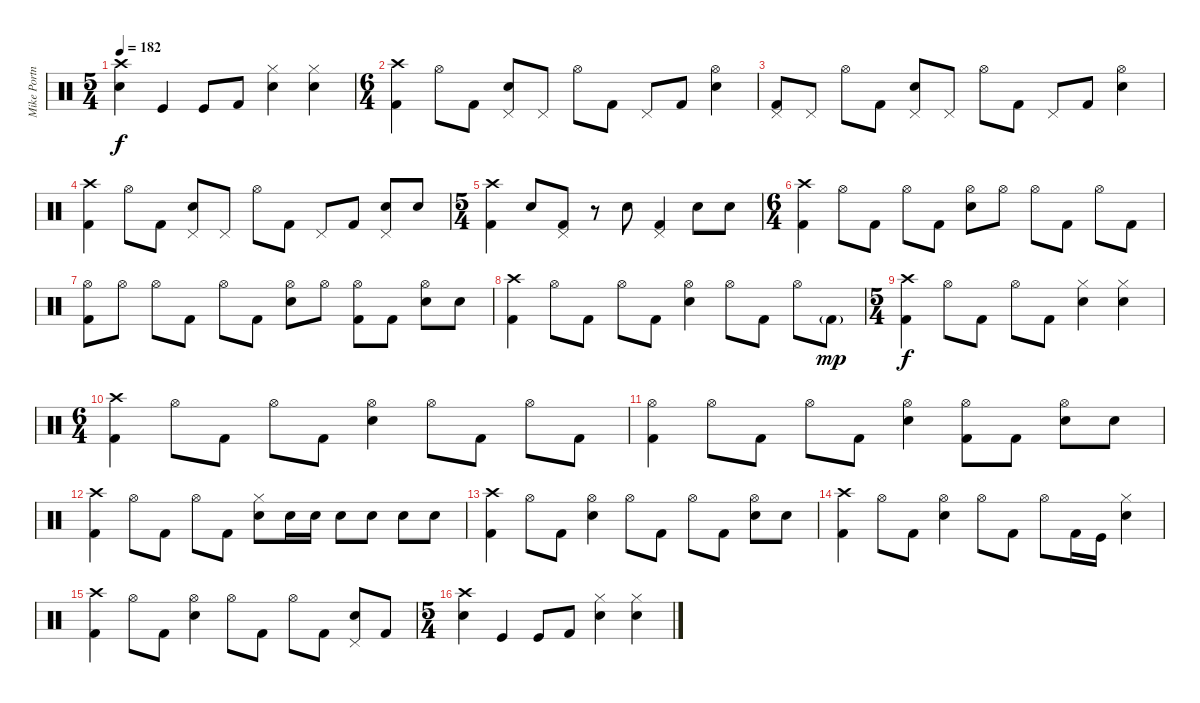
\track ("Mike Portnoy" "Mike Portn") {instrument percussion}
\staff {score}
\articulation defaults
\ts (5 4)
\tempo 182
\clef neutral
\ks c
("Crash high (hit)" "Electric Snare (hit)").4{dy f} "Kick (hit)".4 "Kick (hit)".8 "Kick (hit) 2".8 ("Hi-Hat (closed)" "Electric Snare (hit)").4 ("Hi-Hat (closed)" "Electric Snare (hit)").4 |
\ts (6 4)
("Crash high (hit)" "Kick (hit) 2").4 "Hi-Hat (open)".8 "Kick (hit) 2".8 ("Pedal Hi-Hat (hit)" "Electric Snare (hit)").8 "Pedal Hi-Hat (hit)".8 "Hi-Hat (open)".8 "Kick (hit) 2".8 "Pedal Hi-Hat (hit)".8 "Kick (hit) 2".8 ("Hi-Hat (open)" "Electric Snare (hit)").4 |
("Pedal Hi-Hat (hit)" "Kick (hit) 2").8 "Pedal Hi-Hat (hit)".8 "Hi-Hat (open)".8 "Kick (hit) 2".8 ("Pedal Hi-Hat (hit)" "Electric Snare (hit)").8 "Pedal Hi-Hat (hit)".8 "Hi-Hat (open)".8 "Kick (hit) 2".8 "Pedal Hi-Hat (hit)".8 "Kick (hit) 2".8 ("Hi-Hat (open)" "Electric Snare (hit)").4 |
("Crash high (hit)" "Kick (hit) 2").4 "Hi-Hat (open)".8 "Kick (hit) 2".8 ("Pedal Hi-Hat (hit)" "Electric Snare (hit)").8 "Pedal Hi-Hat (hit)".8 "Hi-Hat (open)".8 "Kick (hit) 2".8 "Pedal Hi-Hat (hit)".8 "Kick (hit) 2".8 ("Pedal Hi-Hat (hit)" "Electric Snare (hit)").8 "Electric Snare (hit)".8 |
\ts (5 4)
("Crash high (hit)" "Kick (hit) 2").4 "Electric Snare (hit)".8 ("Pedal Hi-Hat (hit)" "Kick (hit) 2").8 r.8 "Electric Snare (hit)".8 ("Pedal Hi-Hat (hit)" "Kick (hit) 2").4 "Electric Snare (hit)".8 "Electric Snare (hit)".8 |
\ts (6 4)
("Crash high (hit)" "Kick (hit) 2").4 "Hi-Hat (open)".8 "Kick (hit) 2".8 "Hi-Hat (open)".8 "Kick (hit) 2".8 ("Hi-Hat (open)" "Electric Snare (hit)").8 "Hi-Hat (open)".8 "Hi-Hat (open)".8 "Kick (hit) 2".8 "Hi-Hat (open)".8 "Kick (hit) 2".8 |
("Hi-Hat (open)" "Kick (hit) 2").8 "Hi-Hat (open)".8 "Hi-Hat (open)".8 "Kick (hit) 2".8 "Hi-Hat (open)".8 "Kick (hit) 2".8 ("Hi-Hat (open)" "Electric Snare (hit)").8 "Hi-Hat (open)".8 ("Hi-Hat (open)" "Kick (hit) 2").8 "Kick (hit) 2".8 ("Hi-Hat (open)" "Electric Snare (hit)").8 "Electric Snare (hit)".8 |
("Crash high (hit)" "Kick (hit) 2").4 "Hi-Hat (open)".8 "Kick (hit) 2".8 "Hi-Hat (open)".8 "Kick (hit) 2".8 ("Hi-Hat (open)" "Electric Snare (hit)").4 "Hi-Hat (open)".8 "Kick (hit) 2".8 "Hi-Hat (open)".8 "Kick (hit) 2"{g}.8{dy mp} |
\ts (5 4)
("Crash high (hit)" "Kick (hit) 2").4{dy f} "Hi-Hat (open)".8 "Kick (hit) 2".8 "Hi-Hat (open)".8 "Kick (hit) 2".8 ("Hi-Hat (closed)" "Electric Snare (hit)").4 ("Hi-Hat (closed)" "Electric Snare (hit)").4 |
\ts (6 4)
("Crash high (hit)" "Kick (hit) 2").4 "Hi-Hat (open)".8 "Kick (hit) 2".8 "Hi-Hat (open)".8 "Kick (hit) 2".8 ("Hi-Hat (open)" "Electric Snare (hit)").4 "Hi-Hat (open)".8 "Kick (hit) 2".8 "Hi-Hat (open)".8 "Kick (hit) 2".8 |
("Hi-Hat (open)" "Kick (hit) 2").4 "Hi-Hat (open)".8 "Kick (hit) 2".8 "Hi-Hat (open)".8 "Kick (hit) 2".8 ("Hi-Hat (open)" "Electric Snare (hit)").4 ("Hi-Hat (open)" "Kick (hit) 2").8 "Kick (hit) 2".8 ("Hi-Hat (open)" "Electric Snare (hit)").8 "Electric Snare (hit)".8 |
("Crash high (hit)" "Kick (hit) 2").4 "Hi-Hat (open)".8 "Kick (hit) 2".8 "Hi-Hat (open)".8 "Kick (hit) 2".8 ("Hi-Hat (closed)" "Electric Snare (hit)").8 "Electric Snare (hit)".16 "Electric Snare (hit)".16 "Electric Snare (hit)".8 "Electric Snare (hit)".8 "Electric Snare (hit)".8 "Electric Snare (hit)".8 |
("Crash high (hit)" "Kick (hit) 2").4 "Hi-Hat (open)".8 "Kick (hit) 2".8 ("Hi-Hat (open)" "Electric Snare (hit)").4 "Hi-Hat (open)".8 "Kick (hit) 2".8 "Hi-Hat (open)".8 "Kick (hit) 2".8 ("Hi-Hat (open)" "Electric Snare (hit)").8 "Electric Snare (hit)".8 |
("Crash high (hit)" "Kick (hit) 2").4 "Hi-Hat (open)".8 "Kick (hit) 2".8 ("Hi-Hat (open)" "Electric Snare (hit)").4 "Hi-Hat (open)".8 "Kick (hit) 2".8 "Hi-Hat (open)".8 "Kick (hit) 2".16 "Kick (hit)".16 ("Hi-Hat (closed)" "Electric Snare (hit)").4 |
("Crash high (hit)" "Kick (hit) 2").4 "Hi-Hat (open)".8 "Kick (hit) 2".8 ("Hi-Hat (open)" "Electric Snare (hit)").4 "Hi-Hat (open)".8 "Kick (hit) 2".8 "Hi-Hat (open)".8 "Kick (hit) 2".8 ("Pedal Hi-Hat (hit)" "Electric Snare (hit)").8 "Kick (hit) 2".8 |
\ts (5 4)
("Crash high (hit)" "Electric Snare (hit)").4 "Kick (hit)".4 "Kick (hit)".8 "Kick (hit) 2".8 ("Hi-Hat (closed)" "Electric Snare (hit)").4 ("Hi-Hat (closed)" "Electric Snare (hit)").4
